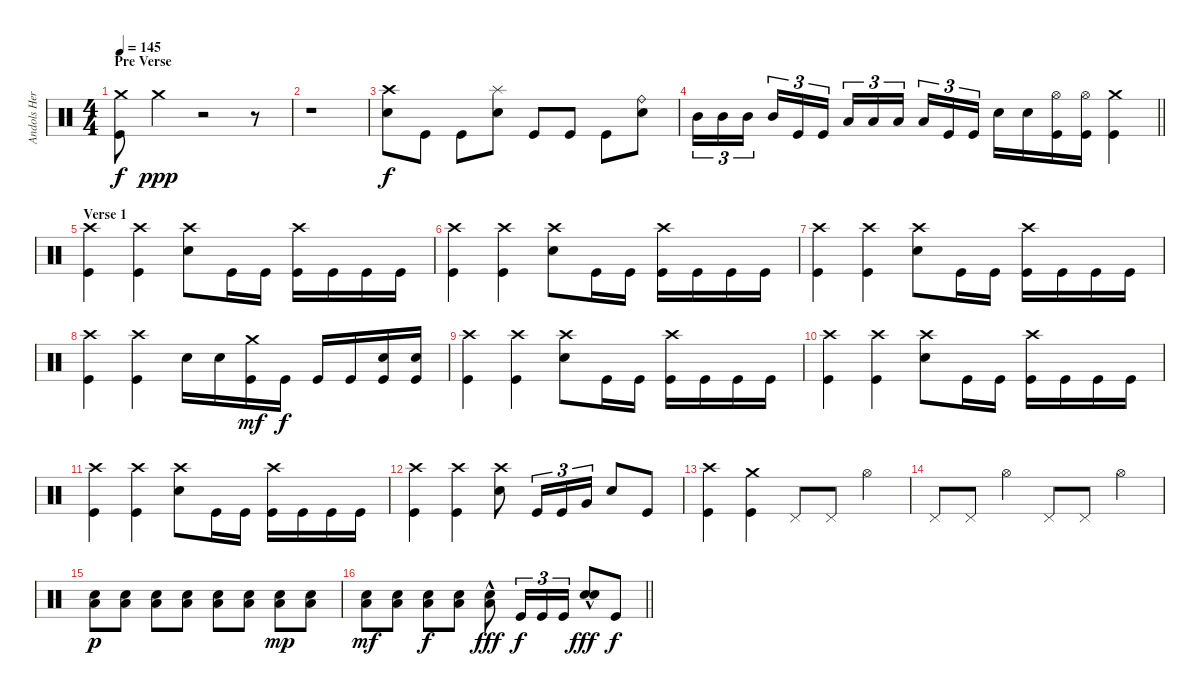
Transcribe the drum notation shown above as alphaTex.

\track ("Andols Herrick" "Andols Her") {instrument percussion}
\staff
\articulation defaults
\ts (4 4)
\section ("" "Pre Verse")
\tempo 145
\clef neutral
\ks c
("Crash medium (hit)" "Kick (hit)").8{dy f} "Crash medium (hit)".4{dy ppp} r.2 r.8 |
r.1 |
("Crash high (hit)" "Electric Snare (hit)").8{dy f} "Kick (hit)".8 "Kick (hit)".8 ("Splash (hit)" "Electric Snare (hit)").8 "Kick (hit)".8 "Kick (hit)".8 "Kick (hit)".8 ("Ride (bell)" "Electric Snare (hit)").8 |
\barLineRight lightlight "Mid Tom (hit)".16{tu (3 2)} "Mid Tom (hit)".16{tu (3 2)} "Mid Tom (hit)".16{tu (3 2) beam splitsecondary} "Mid Tom (hit)".16{tu (3 2)} "Kick (hit)".16{tu (3 2)} "Kick (hit)".16{tu (3 2)} "Low Tom (hit)".16{tu (3 2)} "Low Tom (hit)".16{tu (3 2)} "Low Tom (hit)".16{tu (3 2) beam splitsecondary} "Low Tom (hit)".16{tu (3 2)} "Kick (hit)".16{tu (3 2)} "Kick (hit)".16{tu (3 2)} "Electric Snare (hit)".16 "Electric Snare (hit)".16
("Hi-Hat (open)" "Kick (hit)").16 ("Hi-Hat (open)" "Kick (hit)").16 ("Crash medium (hit)" "Kick (hit)").4 |
\section ("" "Verse 1")
("Crash high (hit)" "Kick (hit)").4 ("Crash high (hit)" "Kick (hit)").4 ("Crash high (hit)" "Electric Snare (hit)").8 "Kick (hit)".16 "Kick (hit)".16 ("Crash high (hit)" "Kick (hit)").16 "Kick (hit)".16 "Kick (hit)".16 "Kick (hit)".16 |
("Crash high (hit)" "Kick (hit)").4 ("Crash high (hit)" "Kick (hit)").4 ("Crash high (hit)" "Electric Snare (hit)").8 "Kick (hit)".16 "Kick (hit)".16 ("Crash high (hit)" "Kick (hit)").16 "Kick (hit)".16 "Kick (hit)".16 "Kick (hit)".16 |
("Crash high (hit)" "Kick (hit)").4 ("Crash high (hit)" "Kick (hit)").4 ("Crash high (hit)" "Electric Snare (hit)").8 "Kick (hit)".16 "Kick (hit)".16 ("Crash high (hit)" "Kick (hit)").16 "Kick (hit)".16 "Kick (hit)".16 "Kick (hit)".16 |
("Crash high (hit)" "Kick (hit)").4 ("Crash high (hit)" "Kick (hit)").4 "Electric Snare (hit)".16 "Electric Snare (hit)".16 ("Crash medium (hit)" "Kick (hit)").16{dy mf} "Kick (hit)".16{dy f} "Kick (hit)".16 "Kick (hit)".16 ("Electric Snare (hit)" "Kick (hit)").16 ("Electric Snare (hit)" "Kick (hit)").16 |
("Crash high (hit)" "Kick (hit)").4 ("Crash high (hit)" "Kick (hit)").4 ("Crash high (hit)" "Electric Snare (hit)").8 "Kick (hit)".16 "Kick (hit)".16 ("Crash high (hit)" "Kick (hit)").16 "Kick (hit)".16 "Kick (hit)".16 "Kick (hit)".16 |
("Crash high (hit)" "Kick (hit)").4 ("Crash high (hit)" "Kick (hit)").4 ("Crash high (hit)" "Electric Snare (hit)").8 "Kick (hit)".16 "Kick (hit)".16 ("Crash high (hit)" "Kick (hit)").16 "Kick (hit)".16 "Kick (hit)".16 "Kick (hit)".16 |
("Crash high (hit)" "Kick (hit)").4 ("Crash high (hit)" "Kick (hit)").4 ("Crash high (hit)" "Electric Snare (hit)").8 "Kick (hit)".16 "Kick (hit)".16 ("Crash high (hit)" "Kick (hit)").16 "Kick (hit)".16 "Kick (hit)".16 "Kick (hit)".16 |
("Crash high (hit)" "Kick (hit)").4 ("Crash high (hit)" "Kick (hit)").4 ("Crash high (hit)" "Electric Snare (hit)").8 "Kick (hit)".16{tu (3 2)} "Kick (hit)".16{tu (3 2)} "Very Low Tom (hit)".16{tu (3 2)} "Electric Snare (hit)".8 "Kick (hit)".8 |
("Crash high (hit)" "Kick (hit)").4 ("Crash medium (hit)" "Kick (hit)").4 "Pedal Hi-Hat (hit)".8 "Pedal Hi-Hat (hit)".8 "Hi-Hat (open)".4 |
"Pedal Hi-Hat (hit)".8 "Pedal Hi-Hat (hit)".8 "Hi-Hat (open)".4 "Pedal Hi-Hat (hit)".8 "Pedal Hi-Hat (hit)".8 "Hi-Hat (open)".4 |
("Electric Snare (hit)" "Low Floor Tom (hit)").8{dy p} ("Electric Snare (hit)" "Low Floor Tom (hit)").8 ("Electric Snare (hit)" "Low Floor Tom (hit)").8 ("Electric Snare (hit)" "Low Floor Tom (hit)").8 ("Electric Snare (hit)" "Low Floor Tom (hit)").8 ("Electric Snare (hit)" "Low Floor Tom (hit)").8 ("Electric Snare (hit)" "Low Floor Tom (hit)").8{dy mp} ("Electric Snare (hit)" "Low Floor Tom (hit)").8 |
\barLineRight lightlight
("Electric Snare (hit)" "Low Floor Tom (hit)").8{dy mf} ("Electric Snare (hit)" "Low Floor Tom (hit)").8 ("Electric Snare (hit)" "Low Floor Tom (hit)").8{dy f} ("Electric Snare (hit)" "Low Floor Tom (hit)").8 ("Electric Snare (hit)"{hac} "Low Floor Tom (hit)").8{dy fff} "Kick (hit)".16{tu (3 2) dy f} "Kick (hit)".16{tu (3 2)} "Kick (hit)".16{tu (3 2)} ("Electric Snare (hit)" "Electric Snare (hit)"{hac}).8{dy fff} "Kick (hit)".8{dy f}
